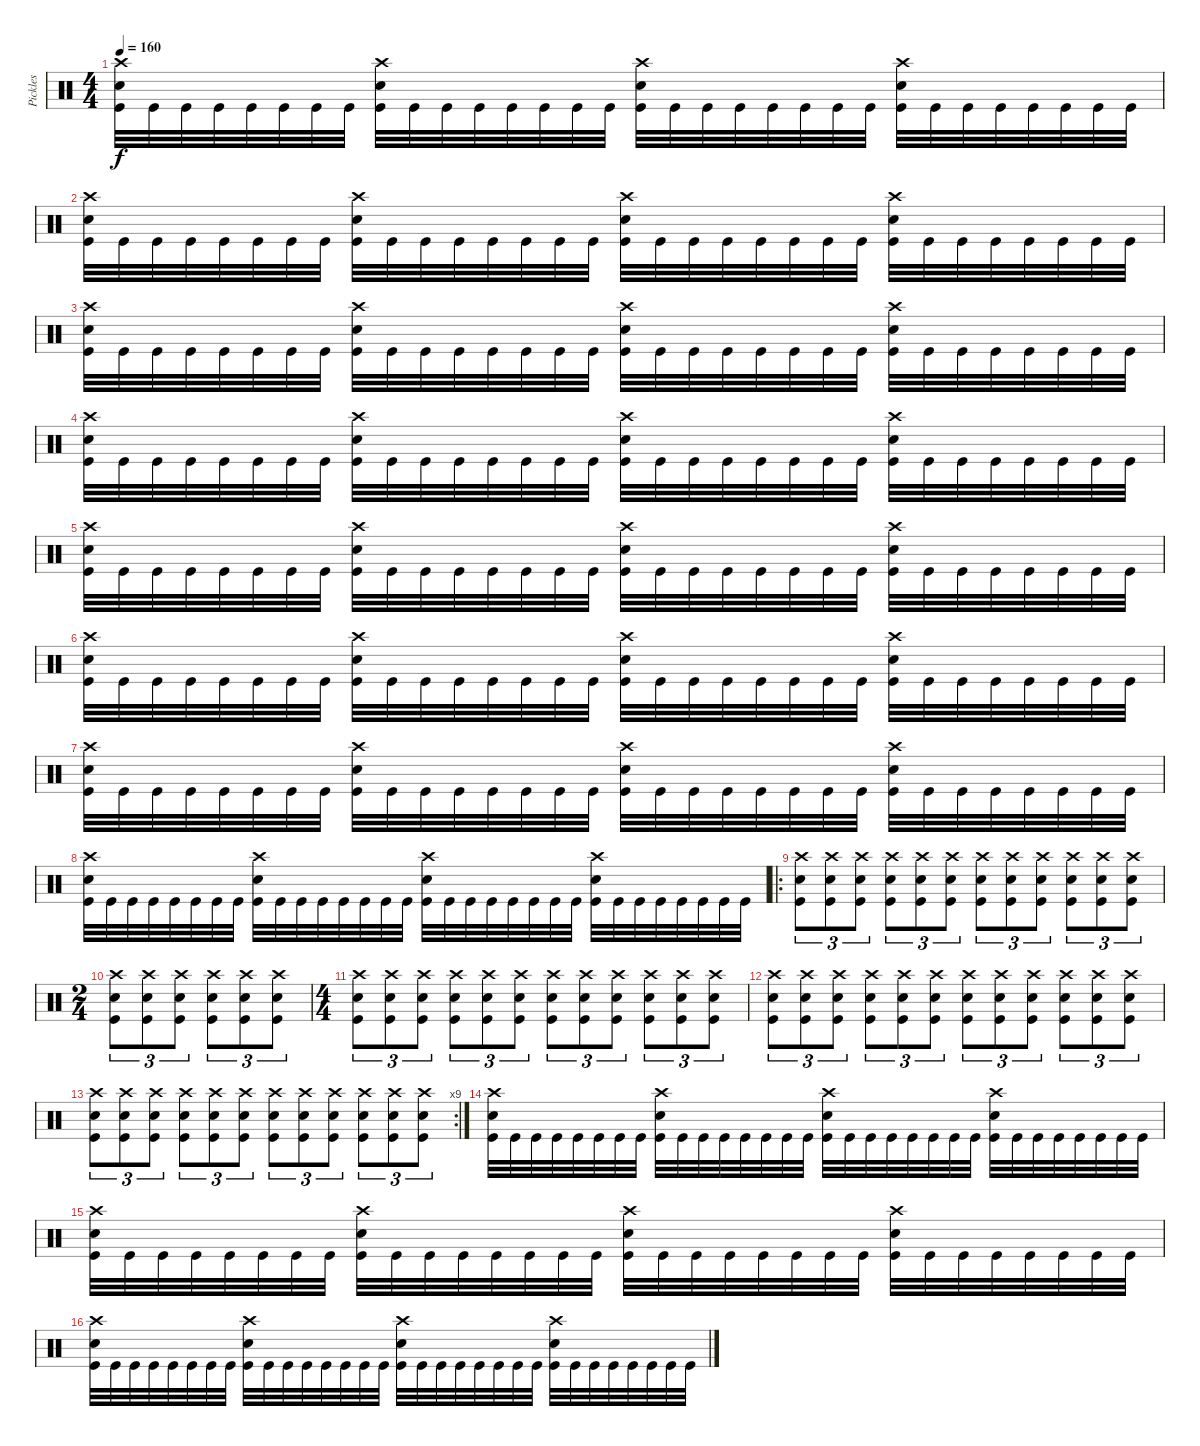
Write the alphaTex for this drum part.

\track ("Pickles" "Pickles") {instrument percussion}
\staff {score}
\articulation defaults
\ts (4 4)
\tempo 160
\clef neutral
\ks c
("Crash high (hit)" "Snare (hit) 2" "Kick (hit)").32{dy f} "Kick (hit)".32 "Kick (hit)".32 "Kick (hit)".32 "Kick (hit)".32 "Kick (hit)".32 "Kick (hit)".32 "Kick (hit)".32 ("Crash high (hit)" "Snare (hit) 2" "Kick (hit)").32 "Kick (hit)".32 "Kick (hit)".32 "Kick (hit)".32 "Kick (hit)".32 "Kick (hit)".32 "Kick (hit)".32 "Kick (hit)".32 ("Crash high (hit)" "Snare (hit) 2" "Kick (hit)").32 "Kick (hit)".32 "Kick (hit)".32 "Kick (hit)".32 "Kick (hit)".32 "Kick (hit)".32 "Kick (hit)".32 "Kick (hit)".32 ("Crash high (hit)" "Snare (hit) 2" "Kick (hit)").32 "Kick (hit)".32 "Kick (hit)".32 "Kick (hit)".32 "Kick (hit)".32 "Kick (hit)".32 "Kick (hit)".32 "Kick (hit)".32 |
("Crash high (hit)" "Snare (hit) 2" "Kick (hit)").32 "Kick (hit)".32 "Kick (hit)".32 "Kick (hit)".32 "Kick (hit)".32 "Kick (hit)".32 "Kick (hit)".32 "Kick (hit)".32 ("Crash high (hit)" "Snare (hit) 2" "Kick (hit)").32 "Kick (hit)".32 "Kick (hit)".32 "Kick (hit)".32 "Kick (hit)".32 "Kick (hit)".32 "Kick (hit)".32 "Kick (hit)".32 ("Crash high (hit)" "Snare (hit) 2" "Kick (hit)").32 "Kick (hit)".32 "Kick (hit)".32 "Kick (hit)".32 "Kick (hit)".32 "Kick (hit)".32 "Kick (hit)".32 "Kick (hit)".32 ("Crash high (hit)" "Snare (hit) 2" "Kick (hit)").32 "Kick (hit)".32 "Kick (hit)".32 "Kick (hit)".32 "Kick (hit)".32 "Kick (hit)".32 "Kick (hit)".32 "Kick (hit)".32 |
("Crash high (hit)" "Snare (hit) 2" "Kick (hit)").32 "Kick (hit)".32 "Kick (hit)".32 "Kick (hit)".32 "Kick (hit)".32 "Kick (hit)".32 "Kick (hit)".32 "Kick (hit)".32 ("Crash high (hit)" "Snare (hit) 2" "Kick (hit)").32 "Kick (hit)".32 "Kick (hit)".32 "Kick (hit)".32 "Kick (hit)".32 "Kick (hit)".32 "Kick (hit)".32 "Kick (hit)".32 ("Crash high (hit)" "Snare (hit) 2" "Kick (hit)").32 "Kick (hit)".32 "Kick (hit)".32 "Kick (hit)".32 "Kick (hit)".32 "Kick (hit)".32 "Kick (hit)".32 "Kick (hit)".32 ("Crash high (hit)" "Snare (hit) 2" "Kick (hit)").32 "Kick (hit)".32 "Kick (hit)".32 "Kick (hit)".32 "Kick (hit)".32 "Kick (hit)".32 "Kick (hit)".32 "Kick (hit)".32 |
("Crash high (hit)" "Snare (hit) 2" "Kick (hit)").32 "Kick (hit)".32 "Kick (hit)".32 "Kick (hit)".32 "Kick (hit)".32 "Kick (hit)".32 "Kick (hit)".32 "Kick (hit)".32 ("Crash high (hit)" "Snare (hit) 2" "Kick (hit)").32 "Kick (hit)".32 "Kick (hit)".32 "Kick (hit)".32 "Kick (hit)".32 "Kick (hit)".32 "Kick (hit)".32 "Kick (hit)".32 ("Crash high (hit)" "Snare (hit) 2" "Kick (hit)").32 "Kick (hit)".32 "Kick (hit)".32 "Kick (hit)".32 "Kick (hit)".32 "Kick (hit)".32 "Kick (hit)".32 "Kick (hit)".32 ("Crash high (hit)" "Snare (hit) 2" "Kick (hit)").32 "Kick (hit)".32 "Kick (hit)".32 "Kick (hit)".32 "Kick (hit)".32 "Kick (hit)".32 "Kick (hit)".32 "Kick (hit)".32 |
("Crash high (hit)" "Snare (hit) 2" "Kick (hit)").32 "Kick (hit)".32 "Kick (hit)".32 "Kick (hit)".32 "Kick (hit)".32 "Kick (hit)".32 "Kick (hit)".32 "Kick (hit)".32 ("Crash high (hit)" "Snare (hit) 2" "Kick (hit)").32 "Kick (hit)".32 "Kick (hit)".32 "Kick (hit)".32 "Kick (hit)".32 "Kick (hit)".32 "Kick (hit)".32 "Kick (hit)".32 ("Crash high (hit)" "Snare (hit) 2" "Kick (hit)").32 "Kick (hit)".32 "Kick (hit)".32 "Kick (hit)".32 "Kick (hit)".32 "Kick (hit)".32 "Kick (hit)".32 "Kick (hit)".32 ("Crash high (hit)" "Snare (hit) 2" "Kick (hit)").32 "Kick (hit)".32 "Kick (hit)".32 "Kick (hit)".32 "Kick (hit)".32 "Kick (hit)".32 "Kick (hit)".32 "Kick (hit)".32 |
("Crash high (hit)" "Snare (hit) 2" "Kick (hit)").32 "Kick (hit)".32 "Kick (hit)".32 "Kick (hit)".32 "Kick (hit)".32 "Kick (hit)".32 "Kick (hit)".32 "Kick (hit)".32 ("Crash high (hit)" "Snare (hit) 2" "Kick (hit)").32 "Kick (hit)".32 "Kick (hit)".32 "Kick (hit)".32 "Kick (hit)".32 "Kick (hit)".32 "Kick (hit)".32 "Kick (hit)".32 ("Crash high (hit)" "Snare (hit) 2" "Kick (hit)").32 "Kick (hit)".32 "Kick (hit)".32 "Kick (hit)".32 "Kick (hit)".32 "Kick (hit)".32 "Kick (hit)".32 "Kick (hit)".32 ("Crash high (hit)" "Snare (hit) 2" "Kick (hit)").32 "Kick (hit)".32 "Kick (hit)".32 "Kick (hit)".32 "Kick (hit)".32 "Kick (hit)".32 "Kick (hit)".32 "Kick (hit)".32 |
("Crash high (hit)" "Snare (hit) 2" "Kick (hit)").32 "Kick (hit)".32 "Kick (hit)".32 "Kick (hit)".32 "Kick (hit)".32 "Kick (hit)".32 "Kick (hit)".32 "Kick (hit)".32 ("Crash high (hit)" "Snare (hit) 2" "Kick (hit)").32 "Kick (hit)".32 "Kick (hit)".32 "Kick (hit)".32 "Kick (hit)".32 "Kick (hit)".32 "Kick (hit)".32 "Kick (hit)".32 ("Crash high (hit)" "Snare (hit) 2" "Kick (hit)").32 "Kick (hit)".32 "Kick (hit)".32 "Kick (hit)".32 "Kick (hit)".32 "Kick (hit)".32 "Kick (hit)".32 "Kick (hit)".32 ("Crash high (hit)" "Snare (hit) 2" "Kick (hit)").32 "Kick (hit)".32 "Kick (hit)".32 "Kick (hit)".32 "Kick (hit)".32 "Kick (hit)".32 "Kick (hit)".32 "Kick (hit)".32 |
("Crash high (hit)" "Snare (hit) 2" "Kick (hit)").32 "Kick (hit)".32 "Kick (hit)".32 "Kick (hit)".32 "Kick (hit)".32 "Kick (hit)".32 "Kick (hit)".32 "Kick (hit)".32 ("Crash high (hit)" "Snare (hit) 2" "Kick (hit)").32 "Kick (hit)".32 "Kick (hit)".32 "Kick (hit)".32 "Kick (hit)".32 "Kick (hit)".32 "Kick (hit)".32 "Kick (hit)".32 ("Crash high (hit)" "Snare (hit) 2" "Kick (hit)").32 "Kick (hit)".32 "Kick (hit)".32 "Kick (hit)".32 "Kick (hit)".32 "Kick (hit)".32 "Kick (hit)".32 "Kick (hit)".32 ("Crash high (hit)" "Snare (hit) 2" "Kick (hit)").32 "Kick (hit)".32 "Kick (hit)".32 "Kick (hit)".32 "Kick (hit)".32 "Kick (hit)".32 "Kick (hit)".32 "Kick (hit)".32 |
\ro
("Crash high (hit)" "Snare (hit) 2" "Kick (hit)").8{tu (3 2)} ("Crash high (hit)" "Snare (hit) 2" "Kick (hit)").8{tu (3 2)} ("Crash high (hit)" "Snare (hit) 2" "Kick (hit)").8{tu (3 2)} ("Crash high (hit)" "Snare (hit) 2" "Kick (hit)").8{tu (3 2)} ("Crash high (hit)" "Snare (hit) 2" "Kick (hit)").8{tu (3 2)} ("Crash high (hit)" "Snare (hit) 2" "Kick (hit)").8{tu (3 2)} ("Crash high (hit)" "Snare (hit) 2" "Kick (hit)").8{tu (3 2)} ("Crash high (hit)" "Snare (hit) 2" "Kick (hit)").8{tu (3 2)} ("Crash high (hit)" "Snare (hit) 2" "Kick (hit)").8{tu (3 2)} ("Crash high (hit)" "Snare (hit) 2" "Kick (hit)").8{tu (3 2)} ("Crash high (hit)" "Snare (hit) 2" "Kick (hit)").8{tu (3 2)} ("Crash high (hit)" "Snare (hit) 2" "Kick (hit)").8{tu (3 2)} |
\ts (2 4)
("Crash high (hit)" "Snare (hit) 2" "Kick (hit)").8{tu (3 2)} ("Crash high (hit)" "Snare (hit) 2" "Kick (hit)").8{tu (3 2)} ("Crash high (hit)" "Snare (hit) 2" "Kick (hit)").8{tu (3 2)} ("Crash high (hit)" "Snare (hit) 2" "Kick (hit)").8{tu (3 2)} ("Crash high (hit)" "Snare (hit) 2" "Kick (hit)").8{tu (3 2)} ("Crash high (hit)" "Snare (hit) 2" "Kick (hit)").8{tu (3 2)} |
\ts (4 4)
("Crash high (hit)" "Snare (hit) 2" "Kick (hit)").8{tu (3 2)} ("Crash high (hit)" "Snare (hit) 2" "Kick (hit)").8{tu (3 2)} ("Crash high (hit)" "Snare (hit) 2" "Kick (hit)").8{tu (3 2)} ("Crash high (hit)" "Snare (hit) 2" "Kick (hit)").8{tu (3 2)} ("Crash high (hit)" "Snare (hit) 2" "Kick (hit)").8{tu (3 2)} ("Crash high (hit)" "Snare (hit) 2" "Kick (hit)").8{tu (3 2)} ("Crash high (hit)" "Snare (hit) 2" "Kick (hit)").8{tu (3 2)} ("Crash high (hit)" "Snare (hit) 2" "Kick (hit)").8{tu (3 2)} ("Crash high (hit)" "Snare (hit) 2" "Kick (hit)").8{tu (3 2)} ("Crash high (hit)" "Snare (hit) 2" "Kick (hit)").8{tu (3 2)} ("Crash high (hit)" "Snare (hit) 2" "Kick (hit)").8{tu (3 2)} ("Crash high (hit)" "Snare (hit) 2" "Kick (hit)").8{tu (3 2)} |
("Crash high (hit)" "Snare (hit) 2" "Kick (hit)").8{tu (3 2)} ("Crash high (hit)" "Snare (hit) 2" "Kick (hit)").8{tu (3 2)} ("Crash high (hit)" "Snare (hit) 2" "Kick (hit)").8{tu (3 2)} ("Crash high (hit)" "Snare (hit) 2" "Kick (hit)").8{tu (3 2)} ("Crash high (hit)" "Snare (hit) 2" "Kick (hit)").8{tu (3 2)} ("Crash high (hit)" "Snare (hit) 2" "Kick (hit)").8{tu (3 2)} ("Crash high (hit)" "Snare (hit) 2" "Kick (hit)").8{tu (3 2)} ("Crash high (hit)" "Snare (hit) 2" "Kick (hit)").8{tu (3 2)} ("Crash high (hit)" "Snare (hit) 2" "Kick (hit)").8{tu (3 2)} ("Crash high (hit)" "Snare (hit) 2" "Kick (hit)").8{tu (3 2)} ("Crash high (hit)" "Snare (hit) 2" "Kick (hit)").8{tu (3 2)} ("Crash high (hit)" "Snare (hit) 2" "Kick (hit)").8{tu (3 2)} |
\rc 9
("Crash high (hit)" "Snare (hit) 2" "Kick (hit)").8{tu (3 2)} ("Crash high (hit)" "Snare (hit) 2" "Kick (hit)").8{tu (3 2)} ("Crash high (hit)" "Snare (hit) 2" "Kick (hit)").8{tu (3 2)} ("Crash high (hit)" "Snare (hit) 2" "Kick (hit)").8{tu (3 2)} ("Crash high (hit)" "Snare (hit) 2" "Kick (hit)").8{tu (3 2)} ("Crash high (hit)" "Snare (hit) 2" "Kick (hit)").8{tu (3 2)} ("Crash high (hit)" "Snare (hit) 2" "Kick (hit)").8{tu (3 2)} ("Crash high (hit)" "Snare (hit) 2" "Kick (hit)").8{tu (3 2)} ("Crash high (hit)" "Snare (hit) 2" "Kick (hit)").8{tu (3 2)} ("Crash high (hit)" "Snare (hit) 2" "Kick (hit)").8{tu (3 2)} ("Crash high (hit)" "Snare (hit) 2" "Kick (hit)").8{tu (3 2)} ("Crash high (hit)" "Snare (hit) 2" "Kick (hit)").8{tu (3 2)} |
("Crash high (hit)" "Snare (hit) 2" "Kick (hit)").32 "Kick (hit)".32 "Kick (hit)".32 "Kick (hit)".32 "Kick (hit)".32 "Kick (hit)".32 "Kick (hit)".32 "Kick (hit)".32 ("Crash high (hit)" "Snare (hit) 2" "Kick (hit)").32 "Kick (hit)".32 "Kick (hit)".32 "Kick (hit)".32 "Kick (hit)".32 "Kick (hit)".32 "Kick (hit)".32 "Kick (hit)".32 ("Crash high (hit)" "Snare (hit) 2" "Kick (hit)").32 "Kick (hit)".32 "Kick (hit)".32 "Kick (hit)".32 "Kick (hit)".32 "Kick (hit)".32 "Kick (hit)".32 "Kick (hit)".32 ("Crash high (hit)" "Snare (hit) 2" "Kick (hit)").32 "Kick (hit)".32 "Kick (hit)".32 "Kick (hit)".32 "Kick (hit)".32 "Kick (hit)".32 "Kick (hit)".32 "Kick (hit)".32 |
("Crash high (hit)" "Snare (hit) 2" "Kick (hit)").32 "Kick (hit)".32 "Kick (hit)".32 "Kick (hit)".32 "Kick (hit)".32 "Kick (hit)".32 "Kick (hit)".32 "Kick (hit)".32 ("Crash high (hit)" "Snare (hit) 2" "Kick (hit)").32 "Kick (hit)".32 "Kick (hit)".32 "Kick (hit)".32 "Kick (hit)".32 "Kick (hit)".32 "Kick (hit)".32 "Kick (hit)".32 ("Crash high (hit)" "Snare (hit) 2" "Kick (hit)").32 "Kick (hit)".32 "Kick (hit)".32 "Kick (hit)".32 "Kick (hit)".32 "Kick (hit)".32 "Kick (hit)".32 "Kick (hit)".32 ("Crash high (hit)" "Snare (hit) 2" "Kick (hit)").32 "Kick (hit)".32 "Kick (hit)".32 "Kick (hit)".32 "Kick (hit)".32 "Kick (hit)".32 "Kick (hit)".32 "Kick (hit)".32 |
("Crash high (hit)" "Snare (hit) 2" "Kick (hit)").32 "Kick (hit)".32 "Kick (hit)".32 "Kick (hit)".32 "Kick (hit)".32 "Kick (hit)".32 "Kick (hit)".32 "Kick (hit)".32 ("Crash high (hit)" "Snare (hit) 2" "Kick (hit)").32 "Kick (hit)".32 "Kick (hit)".32 "Kick (hit)".32 "Kick (hit)".32 "Kick (hit)".32 "Kick (hit)".32 "Kick (hit)".32 ("Crash high (hit)" "Snare (hit) 2" "Kick (hit)").32 "Kick (hit)".32 "Kick (hit)".32 "Kick (hit)".32 "Kick (hit)".32 "Kick (hit)".32 "Kick (hit)".32 "Kick (hit)".32 ("Crash high (hit)" "Snare (hit) 2" "Kick (hit)").32 "Kick (hit)".32 "Kick (hit)".32 "Kick (hit)".32 "Kick (hit)".32 "Kick (hit)".32 "Kick (hit)".32 "Kick (hit)".32
